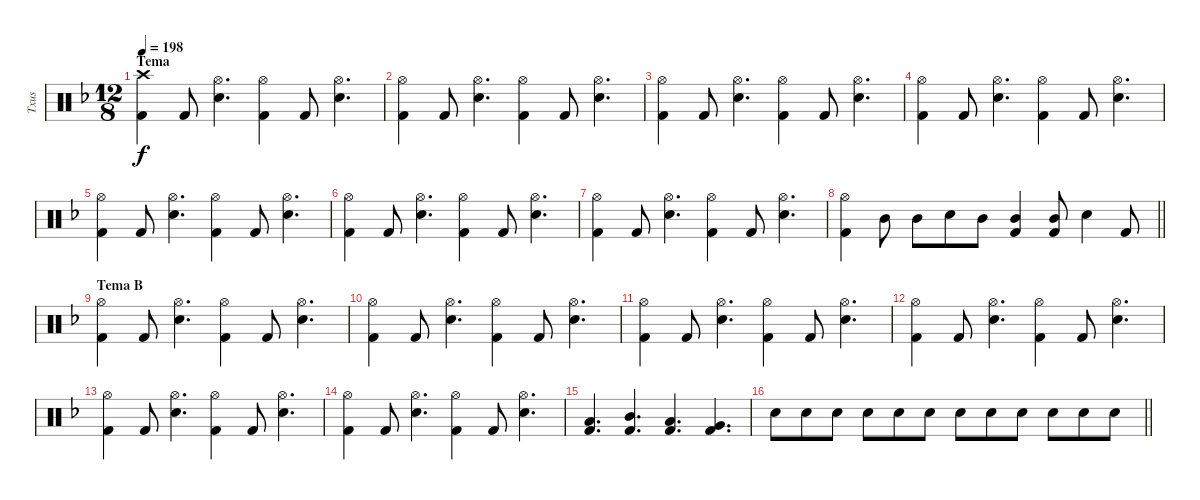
\track ("Txus" "Txus") {instrument percussion}
\staff {score}
\articulation defaults
\ts (12 8)
\section ("" "Tema")
\tempo 198
\clef neutral
\ks dminor
("Crash high (hit)" "Kick (hit) 2").4{dy f} "Kick (hit) 2".8 ("Hi-Hat (open)" "Snare (hit) 2").4{d} ("Hi-Hat (open)" "Kick (hit) 2").4 "Kick (hit) 2".8 ("Hi-Hat (open)" "Snare (hit) 2").4{d} |
("Hi-Hat (open)" "Kick (hit) 2").4 "Kick (hit) 2".8 ("Hi-Hat (open)" "Snare (hit) 2").4{d} ("Hi-Hat (open)" "Kick (hit) 2").4 "Kick (hit) 2".8 ("Hi-Hat (open)" "Snare (hit) 2").4{d} |
("Hi-Hat (open)" "Kick (hit) 2").4 "Kick (hit) 2".8 ("Hi-Hat (open)" "Snare (hit) 2").4{d} ("Hi-Hat (open)" "Kick (hit) 2").4 "Kick (hit) 2".8 ("Hi-Hat (open)" "Snare (hit) 2").4{d} |
("Hi-Hat (open)" "Kick (hit) 2").4 "Kick (hit) 2".8 ("Hi-Hat (open)" "Snare (hit) 2").4{d} ("Hi-Hat (open)" "Kick (hit) 2").4 "Kick (hit) 2".8 ("Hi-Hat (open)" "Snare (hit) 2").4{d} |
("Hi-Hat (open)" "Kick (hit) 2").4 "Kick (hit) 2".8 ("Hi-Hat (open)" "Snare (hit) 2").4{d} ("Hi-Hat (open)" "Kick (hit) 2").4 "Kick (hit) 2".8 ("Hi-Hat (open)" "Snare (hit) 2").4{d} |
("Hi-Hat (open)" "Kick (hit) 2").4 "Kick (hit) 2".8 ("Hi-Hat (open)" "Snare (hit) 2").4{d} ("Hi-Hat (open)" "Kick (hit) 2").4 "Kick (hit) 2".8 ("Hi-Hat (open)" "Snare (hit) 2").4{d} |
("Hi-Hat (open)" "Kick (hit) 2").4 "Kick (hit) 2".8 ("Hi-Hat (open)" "Snare (hit) 2").4{d} ("Hi-Hat (open)" "Kick (hit) 2").4 "Kick (hit) 2".8 ("Hi-Hat (open)" "Snare (hit) 2").4{d} |
\barLineRight lightlight
("Hi-Hat (open)" "Kick (hit) 2").4 "Mid Tom (hit)".8 "Mid Tom (hit)".8 "Snare (hit) 2".8 "Mid Tom (hit)".8 ("Mid Tom (hit)" "Kick (hit) 2").4 ("Mid Tom (hit)" "Kick (hit) 2").8 "Snare (hit) 2".4 "Kick (hit) 2".8 |
\section ("" "Tema B")
("Hi-Hat (open)" "Kick (hit) 2").4 "Kick (hit) 2".8 ("Hi-Hat (open)" "Snare (hit) 2").4{d} ("Hi-Hat (open)" "Kick (hit) 2").4 "Kick (hit) 2".8 ("Hi-Hat (open)" "Snare (hit) 2").4{d} |
("Hi-Hat (open)" "Kick (hit) 2").4 "Kick (hit) 2".8 ("Hi-Hat (open)" "Snare (hit) 2").4{d} ("Hi-Hat (open)" "Kick (hit) 2").4 "Kick (hit) 2".8 ("Hi-Hat (open)" "Snare (hit) 2").4{d} |
("Hi-Hat (open)" "Kick (hit) 2").4 "Kick (hit) 2".8 ("Hi-Hat (open)" "Snare (hit) 2").4{d} ("Hi-Hat (open)" "Kick (hit) 2").4 "Kick (hit) 2".8 ("Hi-Hat (open)" "Snare (hit) 2").4{d} |
("Hi-Hat (open)" "Kick (hit) 2").4 "Kick (hit) 2".8 ("Hi-Hat (open)" "Snare (hit) 2").4{d} ("Hi-Hat (open)" "Kick (hit) 2").4 "Kick (hit) 2".8 ("Hi-Hat (open)" "Snare (hit) 2").4{d} |
("Hi-Hat (open)" "Kick (hit) 2").4 "Kick (hit) 2".8 ("Hi-Hat (open)" "Snare (hit) 2").4{d} ("Hi-Hat (open)" "Kick (hit) 2").4 "Kick (hit) 2".8 ("Hi-Hat (open)" "Snare (hit) 2").4{d} |
("Hi-Hat (open)" "Kick (hit) 2").4 "Kick (hit) 2".8 ("Hi-Hat (open)" "Snare (hit) 2").4{d} ("Hi-Hat (open)" "Kick (hit) 2").4 "Kick (hit) 2".8 ("Hi-Hat (open)" "Snare (hit) 2").4{d} |
("Low Tom (hit)" "Kick (hit) 2").4{d} ("Mid Tom (hit)" "Kick (hit) 2").4{d} ("Low Tom (hit)" "Kick (hit) 2").4{d} ("Very Low Tom (hit)" "Kick (hit) 2").4{d} |
\barLineRight lightlight "Snare (hit) 2".8 "Snare (hit) 2".8 "Snare (hit) 2".8 "Snare (hit) 2".8 "Snare (hit) 2".8 "Snare (hit) 2".8 "Snare (hit) 2".8 "Snare (hit) 2".8 "Snare (hit) 2".8 "Snare (hit) 2".8 "Snare (hit) 2".8 "Snare (hit) 2".8
